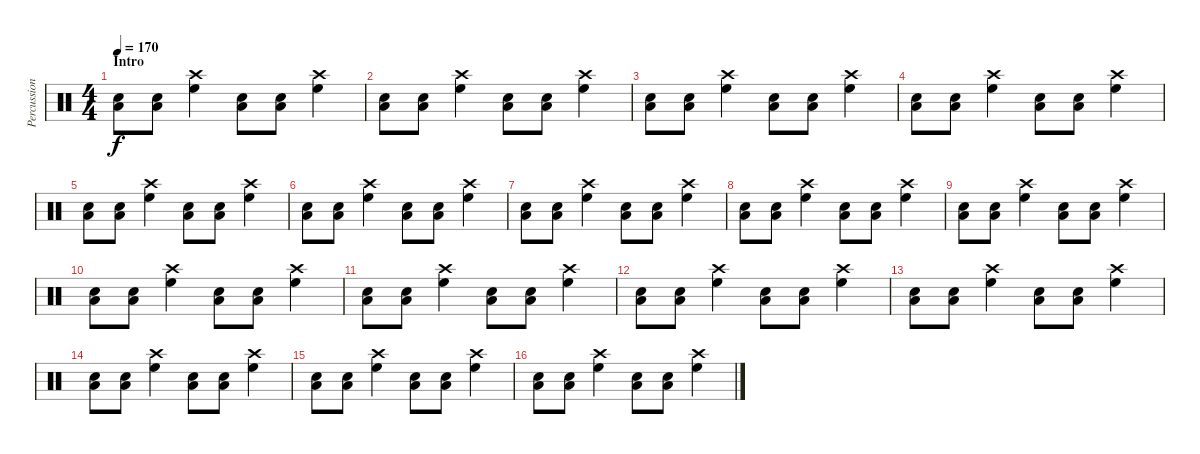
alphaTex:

\track ("Percussion" "Percussion") {instrument percussion}
\staff {score}
\articulation defaults
\ts (4 4)
\section ("" "Intro")
\tempo 170
\clef neutral
\ks c
("Low Floor Tom (hit)" "Electric Snare (hit)").8{dy f} ("Low Floor Tom (hit)" "Electric Snare (hit)").8 ("High Floor Tom (hit)" "Crash high (hit)").4 ("Low Floor Tom (hit)" "Electric Snare (hit)").8 ("Low Floor Tom (hit)" "Electric Snare (hit)").8 ("High Floor Tom (hit)" "Crash high (hit)").4 |
("Low Floor Tom (hit)" "Electric Snare (hit)").8 ("Low Floor Tom (hit)" "Electric Snare (hit)").8 ("High Floor Tom (hit)" "Crash high (hit)").4 ("Low Floor Tom (hit)" "Electric Snare (hit)").8 ("Low Floor Tom (hit)" "Electric Snare (hit)").8 ("High Floor Tom (hit)" "Crash high (hit)").4 |
("Low Floor Tom (hit)" "Electric Snare (hit)").8 ("Low Floor Tom (hit)" "Electric Snare (hit)").8 ("High Floor Tom (hit)" "Crash high (hit)").4 ("Low Floor Tom (hit)" "Electric Snare (hit)").8 ("Low Floor Tom (hit)" "Electric Snare (hit)").8 ("High Floor Tom (hit)" "Crash high (hit)").4 |
("Low Floor Tom (hit)" "Electric Snare (hit)").8 ("Low Floor Tom (hit)" "Electric Snare (hit)").8 ("High Floor Tom (hit)" "Crash high (hit)").4 ("Low Floor Tom (hit)" "Electric Snare (hit)").8 ("Low Floor Tom (hit)" "Electric Snare (hit)").8 ("High Floor Tom (hit)" "Crash high (hit)").4 |
("Low Floor Tom (hit)" "Electric Snare (hit)").8 ("Low Floor Tom (hit)" "Electric Snare (hit)").8 ("High Floor Tom (hit)" "Crash high (hit)").4 ("Low Floor Tom (hit)" "Electric Snare (hit)").8 ("Low Floor Tom (hit)" "Electric Snare (hit)").8 ("High Floor Tom (hit)" "Crash high (hit)").4 |
("Low Floor Tom (hit)" "Electric Snare (hit)").8 ("Low Floor Tom (hit)" "Electric Snare (hit)").8 ("High Floor Tom (hit)" "Crash high (hit)").4 ("Low Floor Tom (hit)" "Electric Snare (hit)").8 ("Low Floor Tom (hit)" "Electric Snare (hit)").8 ("High Floor Tom (hit)" "Crash high (hit)").4 |
("Low Floor Tom (hit)" "Electric Snare (hit)").8 ("Low Floor Tom (hit)" "Electric Snare (hit)").8 ("High Floor Tom (hit)" "Crash high (hit)").4 ("Low Floor Tom (hit)" "Electric Snare (hit)").8 ("Low Floor Tom (hit)" "Electric Snare (hit)").8 ("High Floor Tom (hit)" "Crash high (hit)").4 |
("Low Floor Tom (hit)" "Electric Snare (hit)").8 ("Low Floor Tom (hit)" "Electric Snare (hit)").8 ("High Floor Tom (hit)" "Crash high (hit)").4 ("Low Floor Tom (hit)" "Electric Snare (hit)").8 ("Low Floor Tom (hit)" "Electric Snare (hit)").8 ("High Floor Tom (hit)" "Crash high (hit)").4 |
("Low Floor Tom (hit)" "Electric Snare (hit)").8 ("Low Floor Tom (hit)" "Electric Snare (hit)").8 ("High Floor Tom (hit)" "Crash high (hit)").4 ("Low Floor Tom (hit)" "Electric Snare (hit)").8 ("Low Floor Tom (hit)" "Electric Snare (hit)").8 ("High Floor Tom (hit)" "Crash high (hit)").4 |
("Low Floor Tom (hit)" "Electric Snare (hit)").8 ("Low Floor Tom (hit)" "Electric Snare (hit)").8 ("High Floor Tom (hit)" "Crash high (hit)").4 ("Low Floor Tom (hit)" "Electric Snare (hit)").8 ("Low Floor Tom (hit)" "Electric Snare (hit)").8 ("High Floor Tom (hit)" "Crash high (hit)").4 |
("Low Floor Tom (hit)" "Electric Snare (hit)").8 ("Low Floor Tom (hit)" "Electric Snare (hit)").8 ("High Floor Tom (hit)" "Crash high (hit)").4 ("Low Floor Tom (hit)" "Electric Snare (hit)").8 ("Low Floor Tom (hit)" "Electric Snare (hit)").8 ("High Floor Tom (hit)" "Crash high (hit)").4 |
("Low Floor Tom (hit)" "Electric Snare (hit)").8 ("Low Floor Tom (hit)" "Electric Snare (hit)").8 ("High Floor Tom (hit)" "Crash high (hit)").4 ("Low Floor Tom (hit)" "Electric Snare (hit)").8 ("Low Floor Tom (hit)" "Electric Snare (hit)").8 ("High Floor Tom (hit)" "Crash high (hit)").4 |
("Low Floor Tom (hit)" "Electric Snare (hit)").8 ("Low Floor Tom (hit)" "Electric Snare (hit)").8 ("High Floor Tom (hit)" "Crash high (hit)").4 ("Low Floor Tom (hit)" "Electric Snare (hit)").8 ("Low Floor Tom (hit)" "Electric Snare (hit)").8 ("High Floor Tom (hit)" "Crash high (hit)").4 |
("Low Floor Tom (hit)" "Electric Snare (hit)").8 ("Low Floor Tom (hit)" "Electric Snare (hit)").8 ("High Floor Tom (hit)" "Crash high (hit)").4 ("Low Floor Tom (hit)" "Electric Snare (hit)").8 ("Low Floor Tom (hit)" "Electric Snare (hit)").8 ("High Floor Tom (hit)" "Crash high (hit)").4 |
("Low Floor Tom (hit)" "Electric Snare (hit)").8 ("Low Floor Tom (hit)" "Electric Snare (hit)").8 ("High Floor Tom (hit)" "Crash high (hit)").4 ("Low Floor Tom (hit)" "Electric Snare (hit)").8 ("Low Floor Tom (hit)" "Electric Snare (hit)").8 ("High Floor Tom (hit)" "Crash high (hit)").4 |
("Low Floor Tom (hit)" "Electric Snare (hit)").8 ("Low Floor Tom (hit)" "Electric Snare (hit)").8 ("High Floor Tom (hit)" "Crash high (hit)").4 ("Low Floor Tom (hit)" "Electric Snare (hit)").8 ("Low Floor Tom (hit)" "Electric Snare (hit)").8 ("High Floor Tom (hit)" "Crash high (hit)").4
